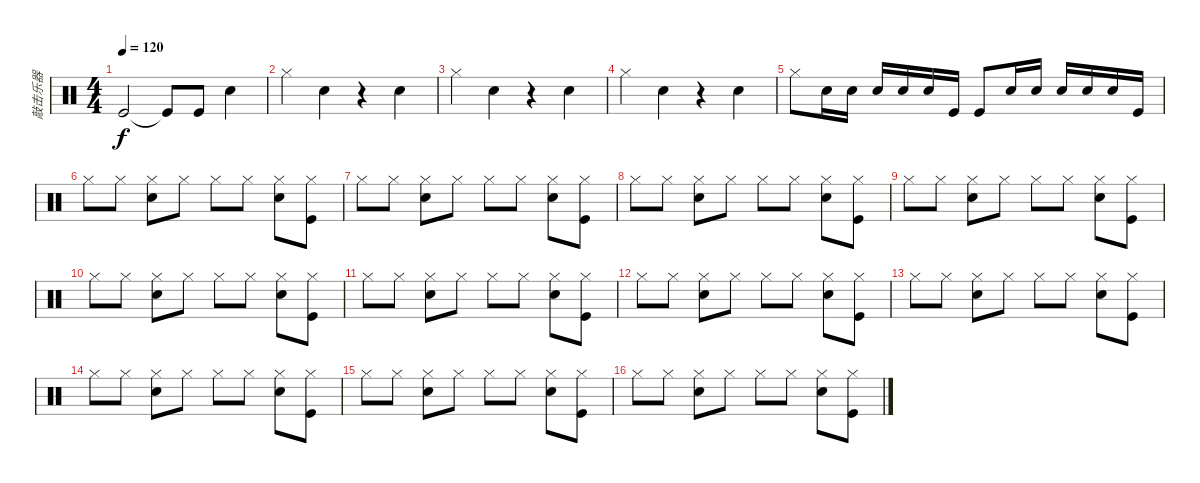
\track ("敲击乐器" "敲击乐器") {instrument percussion}
\staff {score}
\articulation defaults
\ts (4 4)
\tempo 120
\clef neutral
\ks c "Kick (hit)".2{dy f} "Kick (hit)"{t}.8 "Kick (hit)".8 "Snare (hit) 2".4
|
"Hi-Hat (closed)".4 "Snare (hit) 2".4 r.4 "Snare (hit) 2".4 |
"Hi-Hat (closed)".4 "Snare (hit) 2".4 r.4 "Snare (hit) 2".4 |
"Hi-Hat (closed)".4 "Snare (hit) 2".4 r.4 "Snare (hit) 2".4 |
"Hi-Hat (closed)".8 "Snare (hit) 2".16 "Snare (hit) 2".16 "Snare (hit) 2".16 "Snare (hit) 2".16 "Snare (hit) 2".16 "Kick (hit)".16 "Kick (hit)".8 "Snare (hit) 2".16 "Snare (hit) 2".16 "Snare (hit) 2".16 "Snare (hit) 2".16 "Snare (hit) 2".16 "Kick (hit)".16 |
"Hi-Hat (closed)".8 "Hi-Hat (closed)".8 ("Hi-Hat (closed)" "Snare (hit) 2").8 "Hi-Hat (closed)".8 "Hi-Hat (closed)".8 "Hi-Hat (closed)".8 ("Hi-Hat (closed)" "Snare (hit) 2").8 ("Hi-Hat (closed)" "Kick (hit)").8 |
"Hi-Hat (closed)".8 "Hi-Hat (closed)".8 ("Hi-Hat (closed)" "Snare (hit) 2").8 "Hi-Hat (closed)".8 "Hi-Hat (closed)".8 "Hi-Hat (closed)".8 ("Hi-Hat (closed)" "Snare (hit) 2").8 ("Hi-Hat (closed)" "Kick (hit)").8 |
"Hi-Hat (closed)".8 "Hi-Hat (closed)".8 ("Hi-Hat (closed)" "Snare (hit) 2").8 "Hi-Hat (closed)".8 "Hi-Hat (closed)".8 "Hi-Hat (closed)".8 ("Hi-Hat (closed)" "Snare (hit) 2").8 ("Hi-Hat (closed)" "Kick (hit)").8 |
"Hi-Hat (closed)".8 "Hi-Hat (closed)".8 ("Hi-Hat (closed)" "Snare (hit) 2").8 "Hi-Hat (closed)".8 "Hi-Hat (closed)".8 "Hi-Hat (closed)".8 ("Hi-Hat (closed)" "Snare (hit) 2").8 ("Hi-Hat (closed)" "Kick (hit)").8 |
"Hi-Hat (closed)".8 "Hi-Hat (closed)".8 ("Hi-Hat (closed)" "Snare (hit) 2").8 "Hi-Hat (closed)".8 "Hi-Hat (closed)".8 "Hi-Hat (closed)".8 ("Hi-Hat (closed)" "Snare (hit) 2").8 ("Hi-Hat (closed)" "Kick (hit)").8 |
"Hi-Hat (closed)".8 "Hi-Hat (closed)".8 ("Hi-Hat (closed)" "Snare (hit) 2").8 "Hi-Hat (closed)".8 "Hi-Hat (closed)".8 "Hi-Hat (closed)".8 ("Hi-Hat (closed)" "Snare (hit) 2").8 ("Hi-Hat (closed)" "Kick (hit)").8 |
"Hi-Hat (closed)".8 "Hi-Hat (closed)".8 ("Hi-Hat (closed)" "Snare (hit) 2").8 "Hi-Hat (closed)".8 "Hi-Hat (closed)".8 "Hi-Hat (closed)".8 ("Hi-Hat (closed)" "Snare (hit) 2").8 ("Hi-Hat (closed)" "Kick (hit)").8 |
"Hi-Hat (closed)".8 "Hi-Hat (closed)".8 ("Hi-Hat (closed)" "Snare (hit) 2").8 "Hi-Hat (closed)".8 "Hi-Hat (closed)".8 "Hi-Hat (closed)".8 ("Hi-Hat (closed)" "Snare (hit) 2").8 ("Hi-Hat (closed)" "Kick (hit)").8 |
"Hi-Hat (closed)".8 "Hi-Hat (closed)".8 ("Hi-Hat (closed)" "Snare (hit) 2").8 "Hi-Hat (closed)".8 "Hi-Hat (closed)".8 "Hi-Hat (closed)".8 ("Hi-Hat (closed)" "Snare (hit) 2").8 ("Hi-Hat (closed)" "Kick (hit)").8 |
"Hi-Hat (closed)".8 "Hi-Hat (closed)".8 ("Hi-Hat (closed)" "Snare (hit) 2").8 "Hi-Hat (closed)".8 "Hi-Hat (closed)".8 "Hi-Hat (closed)".8 ("Hi-Hat (closed)" "Snare (hit) 2").8 ("Hi-Hat (closed)" "Kick (hit)").8 |
"Hi-Hat (closed)".8 "Hi-Hat (closed)".8 ("Hi-Hat (closed)" "Snare (hit) 2").8 "Hi-Hat (closed)".8 "Hi-Hat (closed)".8 "Hi-Hat (closed)".8 ("Hi-Hat (closed)" "Snare (hit) 2").8 ("Hi-Hat (closed)" "Kick (hit)").8
